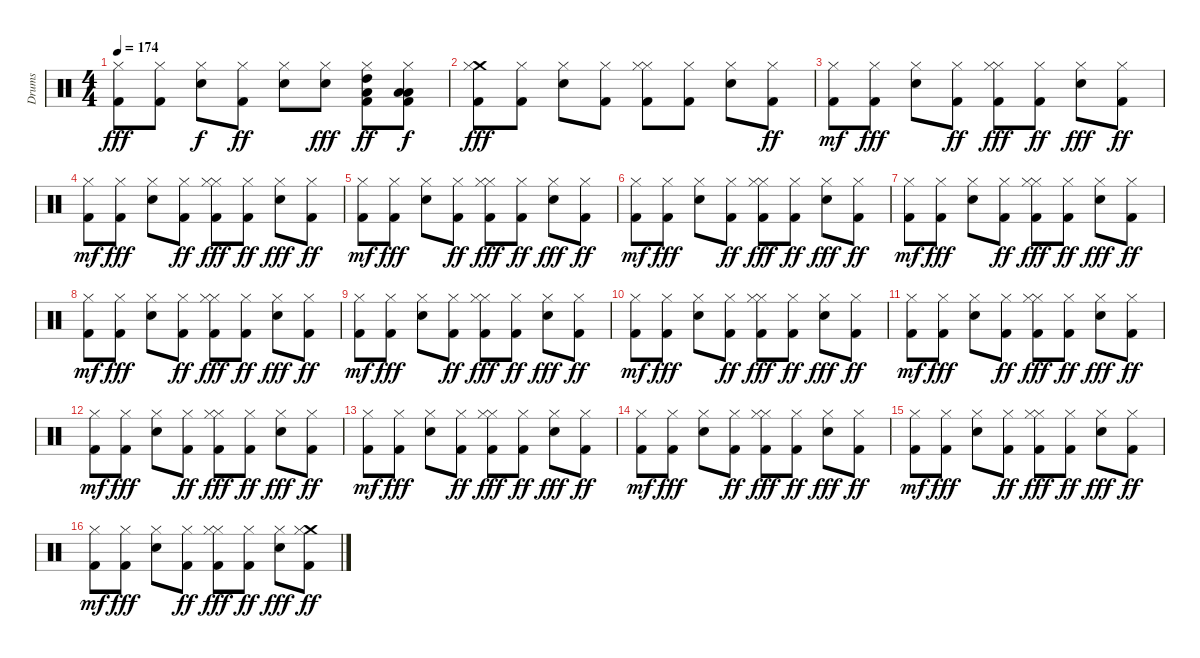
\track ("Drums" "Drums") {instrument percussion}
\staff {score}
\articulation defaults
\ts (4 4)
\tempo 174
\clef neutral
\ks c
("Hi-Hat (closed)" "Kick (hit) 2").8{dy fff} ("Hi-Hat (closed)" "Kick (hit) 2").8 ("Hi-Hat (closed)" "Snare (hit) 2").8{dy f} ("Hi-Hat (closed)" "Kick (hit) 2").8{dy ff} ("Hi-Hat (closed)" "Snare (hit) 2").8 ("Hi-Hat (closed)" "Snare (hit) 2").8{dy fff} ("Hi-Hat (closed)" "Low Tom (hit)" "High Tom (hit)" "Kick (hit) 2").8{dy ff} ("Hi-Hat (closed)" "Low Floor Tom (hit)" "Low Tom (hit)" "Kick (hit) 2").8{dy f} |
("Crash medium (hit)" "Hi-Hat (closed)" "Kick (hit) 2").8{dy fff} ("Hi-Hat (closed)" "Kick (hit) 2").8 ("Hi-Hat (closed)" "Snare (hit) 2").8 ("Hi-Hat (closed)" "Kick (hit) 2").8 ("Hi-Hat (closed)" "Hi-Hat (closed)" "Kick (hit) 2").8 ("Hi-Hat (closed)" "Kick (hit) 2").8 ("Hi-Hat (closed)" "Snare (hit) 2").8 ("Hi-Hat (closed)" "Kick (hit) 2").8{dy ff} |
("Kick (hit) 2" "Hi-Hat (closed)").8{dy mf} ("Hi-Hat (closed)" "Kick (hit) 2").8{dy fff} ("Hi-Hat (closed)" "Snare (hit) 2").8 ("Hi-Hat (closed)" "Kick (hit) 2").8{dy ff} ("Hi-Hat (closed)" "Hi-Hat (closed)" "Kick (hit) 2").8{dy fff} ("Hi-Hat (closed)" "Kick (hit) 2").8{dy ff} ("Hi-Hat (closed)" "Snare (hit) 2").8{dy fff} ("Hi-Hat (closed)" "Kick (hit) 2").8{dy ff} |
("Kick (hit) 2" "Hi-Hat (closed)").8{dy mf} ("Hi-Hat (closed)" "Kick (hit) 2").8{dy fff} ("Hi-Hat (closed)" "Snare (hit) 2").8 ("Hi-Hat (closed)" "Kick (hit) 2").8{dy ff} ("Hi-Hat (closed)" "Hi-Hat (closed)" "Kick (hit) 2").8{dy fff} ("Hi-Hat (closed)" "Kick (hit) 2").8{dy ff} ("Hi-Hat (closed)" "Snare (hit) 2").8{dy fff} ("Hi-Hat (closed)" "Kick (hit) 2").8{dy ff} |
("Kick (hit) 2" "Hi-Hat (closed)").8{dy mf} ("Hi-Hat (closed)" "Kick (hit) 2").8{dy fff} ("Hi-Hat (closed)" "Snare (hit) 2").8 ("Hi-Hat (closed)" "Kick (hit) 2").8{dy ff} ("Hi-Hat (closed)" "Hi-Hat (closed)" "Kick (hit) 2").8{dy fff} ("Hi-Hat (closed)" "Kick (hit) 2").8{dy ff} ("Hi-Hat (closed)" "Snare (hit) 2").8{dy fff} ("Hi-Hat (closed)" "Kick (hit) 2").8{dy ff} |
("Kick (hit) 2" "Hi-Hat (closed)").8{dy mf} ("Hi-Hat (closed)" "Kick (hit) 2").8{dy fff} ("Hi-Hat (closed)" "Snare (hit) 2").8 ("Hi-Hat (closed)" "Kick (hit) 2").8{dy ff} ("Hi-Hat (closed)" "Hi-Hat (closed)" "Kick (hit) 2").8{dy fff} ("Hi-Hat (closed)" "Kick (hit) 2").8{dy ff} ("Hi-Hat (closed)" "Snare (hit) 2").8{dy fff} ("Hi-Hat (closed)" "Kick (hit) 2").8{dy ff} |
("Kick (hit) 2" "Hi-Hat (closed)").8{dy mf} ("Hi-Hat (closed)" "Kick (hit) 2").8{dy fff} ("Hi-Hat (closed)" "Snare (hit) 2").8 ("Hi-Hat (closed)" "Kick (hit) 2").8{dy ff} ("Hi-Hat (closed)" "Hi-Hat (closed)" "Kick (hit) 2").8{dy fff} ("Hi-Hat (closed)" "Kick (hit) 2").8{dy ff} ("Hi-Hat (closed)" "Snare (hit) 2").8{dy fff} ("Hi-Hat (closed)" "Kick (hit) 2").8{dy ff} |
("Kick (hit) 2" "Hi-Hat (closed)").8{dy mf} ("Hi-Hat (closed)" "Kick (hit) 2").8{dy fff} ("Hi-Hat (closed)" "Snare (hit) 2").8 ("Hi-Hat (closed)" "Kick (hit) 2").8{dy ff} ("Hi-Hat (closed)" "Hi-Hat (closed)" "Kick (hit) 2").8{dy fff} ("Hi-Hat (closed)" "Kick (hit) 2").8{dy ff} ("Hi-Hat (closed)" "Snare (hit) 2").8{dy fff} ("Hi-Hat (closed)" "Kick (hit) 2").8{dy ff} |
("Kick (hit) 2" "Hi-Hat (closed)").8{dy mf} ("Hi-Hat (closed)" "Kick (hit) 2").8{dy fff} ("Hi-Hat (closed)" "Snare (hit) 2").8 ("Hi-Hat (closed)" "Kick (hit) 2").8{dy ff} ("Hi-Hat (closed)" "Hi-Hat (closed)" "Kick (hit) 2").8{dy fff} ("Hi-Hat (closed)" "Kick (hit) 2").8{dy ff} ("Hi-Hat (closed)" "Snare (hit) 2").8{dy fff} ("Hi-Hat (closed)" "Kick (hit) 2").8{dy ff} |
("Kick (hit) 2" "Hi-Hat (closed)").8{dy mf} ("Hi-Hat (closed)" "Kick (hit) 2").8{dy fff} ("Hi-Hat (closed)" "Snare (hit) 2").8 ("Hi-Hat (closed)" "Kick (hit) 2").8{dy ff} ("Hi-Hat (closed)" "Hi-Hat (closed)" "Kick (hit) 2").8{dy fff} ("Hi-Hat (closed)" "Kick (hit) 2").8{dy ff} ("Hi-Hat (closed)" "Snare (hit) 2").8{dy fff} ("Hi-Hat (closed)" "Kick (hit) 2").8{dy ff} |
("Kick (hit) 2" "Hi-Hat (closed)").8{dy mf} ("Hi-Hat (closed)" "Kick (hit) 2").8{dy fff} ("Hi-Hat (closed)" "Snare (hit) 2").8 ("Hi-Hat (closed)" "Kick (hit) 2").8{dy ff} ("Hi-Hat (closed)" "Hi-Hat (closed)" "Kick (hit) 2").8{dy fff} ("Hi-Hat (closed)" "Kick (hit) 2").8{dy ff} ("Hi-Hat (closed)" "Snare (hit) 2").8{dy fff} ("Hi-Hat (closed)" "Kick (hit) 2").8{dy ff} |
("Kick (hit) 2" "Hi-Hat (closed)").8{dy mf} ("Hi-Hat (closed)" "Kick (hit) 2").8{dy fff} ("Hi-Hat (closed)" "Snare (hit) 2").8 ("Hi-Hat (closed)" "Kick (hit) 2").8{dy ff} ("Hi-Hat (closed)" "Hi-Hat (closed)" "Kick (hit) 2").8{dy fff} ("Hi-Hat (closed)" "Kick (hit) 2").8{dy ff} ("Hi-Hat (closed)" "Snare (hit) 2").8{dy fff} ("Hi-Hat (closed)" "Kick (hit) 2").8{dy ff} |
("Kick (hit) 2" "Hi-Hat (closed)").8{dy mf} ("Hi-Hat (closed)" "Kick (hit) 2").8{dy fff} ("Hi-Hat (closed)" "Snare (hit) 2").8 ("Hi-Hat (closed)" "Kick (hit) 2").8{dy ff} ("Hi-Hat (closed)" "Hi-Hat (closed)" "Kick (hit) 2").8{dy fff} ("Hi-Hat (closed)" "Kick (hit) 2").8{dy ff} ("Hi-Hat (closed)" "Snare (hit) 2").8{dy fff} ("Hi-Hat (closed)" "Kick (hit) 2").8{dy ff} |
("Kick (hit) 2" "Hi-Hat (closed)").8{dy mf} ("Hi-Hat (closed)" "Kick (hit) 2").8{dy fff} ("Hi-Hat (closed)" "Snare (hit) 2").8 ("Hi-Hat (closed)" "Kick (hit) 2").8{dy ff} ("Hi-Hat (closed)" "Hi-Hat (closed)" "Kick (hit) 2").8{dy fff} ("Hi-Hat (closed)" "Kick (hit) 2").8{dy ff} ("Hi-Hat (closed)" "Snare (hit) 2").8{dy fff} ("Hi-Hat (closed)" "Kick (hit) 2").8{dy ff} |
("Kick (hit) 2" "Hi-Hat (closed)").8{dy mf} ("Hi-Hat (closed)" "Kick (hit) 2").8{dy fff} ("Hi-Hat (closed)" "Snare (hit) 2").8 ("Hi-Hat (closed)" "Kick (hit) 2").8{dy ff} ("Hi-Hat (closed)" "Hi-Hat (closed)" "Kick (hit) 2").8{dy fff} ("Hi-Hat (closed)" "Kick (hit) 2").8{dy ff} ("Hi-Hat (closed)" "Snare (hit) 2").8{dy fff} ("Hi-Hat (closed)" "Kick (hit) 2").8{dy ff} |
("Kick (hit) 2" "Hi-Hat (closed)").8{dy mf} ("Hi-Hat (closed)" "Kick (hit) 2").8{dy fff} ("Hi-Hat (closed)" "Snare (hit) 2").8 ("Hi-Hat (closed)" "Kick (hit) 2").8{dy ff} ("Hi-Hat (closed)" "Hi-Hat (closed)" "Kick (hit) 2").8{dy fff} ("Hi-Hat (closed)" "Kick (hit) 2").8{dy ff} ("Hi-Hat (closed)" "Snare (hit) 2").8{dy fff} ("Crash medium (hit)" "Hi-Hat (closed)" "Kick (hit) 2").8{dy ff}
